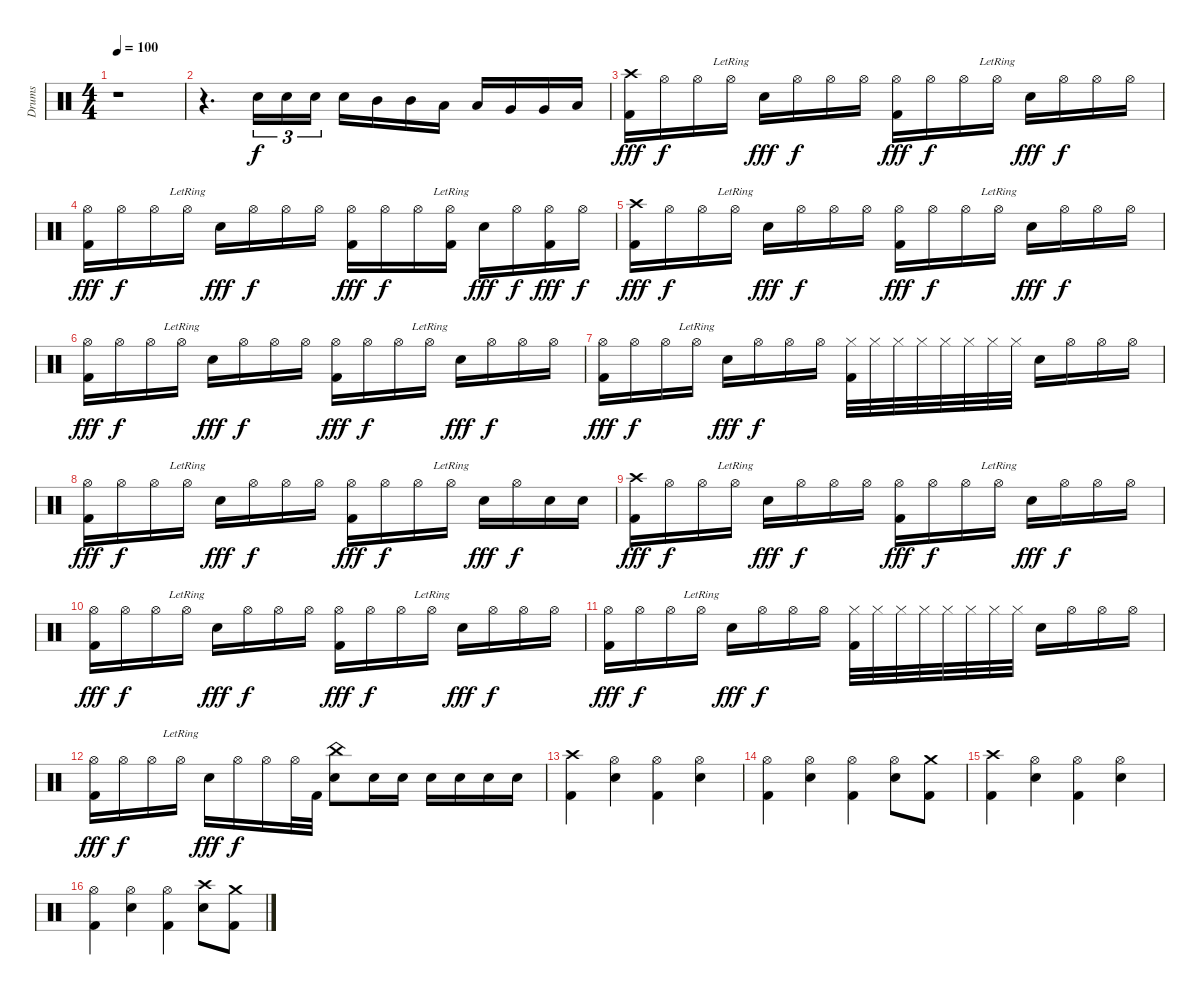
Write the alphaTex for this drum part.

\track ("Drums" "Drums") {instrument percussion}
\staff {score}
\articulation defaults
\ts (4 4)
\tempo 100
\clef neutral
\ks c
r.1{dy f} |
r.4{d} "Snare (hit) 2".16{tu (3 2)} "Snare (hit) 2".16{tu (3 2)} "Snare (hit) 2".16{tu (3 2)} "Snare (hit) 2".16 "Mid Tom (hit)".16 "Mid Tom (hit)".16 "Low Tom (hit)".16 "Low Tom (hit)".16 "Very Low Tom (hit)".16 "Very Low Tom (hit)".16 "Low Floor Tom (hit)".16 |
("Crash high (hit)" "Kick (hit) 2").16{dy fff} "Hi-Hat (open)".16{dy f} "Hi-Hat (open)".16 "Hi-Hat (open)"{lr}.16 "Snare (hit) 2".16{dy fff} "Hi-Hat (open)".16{dy f} "Hi-Hat (open)".16 "Hi-Hat (open)".16 ("Hi-Hat (open)" "Kick (hit) 2").16{dy fff} "Hi-Hat (open)".16{dy f} "Hi-Hat (open)".16 "Hi-Hat (open)"{lr}.16 "Snare (hit) 2".16{dy fff} "Hi-Hat (open)".16{dy f} "Hi-Hat (open)".16 "Hi-Hat (open)".16 |
("Hi-Hat (open)" "Kick (hit) 2").16{dy fff} "Hi-Hat (open)".16{dy f} "Hi-Hat (open)".16 "Hi-Hat (open)"{lr}.16 "Snare (hit) 2".16{dy fff} "Hi-Hat (open)".16{dy f} "Hi-Hat (open)".16 "Hi-Hat (open)".16 ("Hi-Hat (open)" "Kick (hit) 2").16{dy fff} "Hi-Hat (open)".16{dy f} "Hi-Hat (open)".16 ("Hi-Hat (open)"{lr} "Kick (hit) 2").16 "Snare (hit) 2".16{dy fff} "Hi-Hat (open)".16{dy f} ("Hi-Hat (open)" "Kick (hit) 2").16{dy fff} "Hi-Hat (open)".16{dy f} |
("Crash high (hit)" "Kick (hit) 2").16{dy fff} "Hi-Hat (open)".16{dy f} "Hi-Hat (open)".16 "Hi-Hat (open)"{lr}.16 "Snare (hit) 2".16{dy fff} "Hi-Hat (open)".16{dy f} "Hi-Hat (open)".16 "Hi-Hat (open)".16 ("Hi-Hat (open)" "Kick (hit) 2").16{dy fff} "Hi-Hat (open)".16{dy f} "Hi-Hat (open)".16 "Hi-Hat (open)"{lr}.16 "Snare (hit) 2".16{dy fff} "Hi-Hat (open)".16{dy f} "Hi-Hat (open)".16 "Hi-Hat (open)".16 |
("Hi-Hat (open)" "Kick (hit) 2").16{dy fff} "Hi-Hat (open)".16{dy f} "Hi-Hat (open)".16 "Hi-Hat (open)"{lr}.16 "Snare (hit) 2".16{dy fff} "Hi-Hat (open)".16{dy f} "Hi-Hat (open)".16 "Hi-Hat (open)".16 ("Hi-Hat (open)" "Kick (hit) 2").16{dy fff} "Hi-Hat (open)".16{dy f} "Hi-Hat (open)".16 "Hi-Hat (open)"{lr}.16 "Snare (hit) 2".16{dy fff} "Hi-Hat (open)".16{dy f} "Hi-Hat (open)".16 "Hi-Hat (open)".16 |
("Hi-Hat (open)" "Kick (hit) 2").16{dy fff} "Hi-Hat (open)".16{dy f} "Hi-Hat (open)".16 "Hi-Hat (open)"{lr}.16 "Snare (hit) 2".16{dy fff} "Hi-Hat (open)".16{dy f} "Hi-Hat (open)".16 "Hi-Hat (open)".16 ("Hi-Hat (closed)" "Kick (hit) 2").32 "Hi-Hat (closed)".32 "Hi-Hat (closed)".32 "Hi-Hat (closed)".32 "Hi-Hat (closed)".32 "Hi-Hat (closed)".32 "Hi-Hat (closed)".32 "Hi-Hat (closed)".32 "Snare (hit) 2".16 "Hi-Hat (open)".16 "Hi-Hat (open)".16 "Hi-Hat (open)".16 |
("Hi-Hat (open)" "Kick (hit) 2").16{dy fff} "Hi-Hat (open)".16{dy f} "Hi-Hat (open)".16 "Hi-Hat (open)"{lr}.16 "Snare (hit) 2".16{dy fff} "Hi-Hat (open)".16{dy f} "Hi-Hat (open)".16 "Hi-Hat (open)".16 ("Hi-Hat (open)" "Kick (hit) 2").16{dy fff} "Hi-Hat (open)".16{dy f} "Hi-Hat (open)".16 "Hi-Hat (open)"{lr}.16 "Snare (hit) 2".16{dy fff} "Hi-Hat (open)".16{dy f} "Snare (hit) 2".16 "Snare (hit) 2".16 |
("Crash high (hit)" "Kick (hit) 2").16{dy fff} "Hi-Hat (open)".16{dy f} "Hi-Hat (open)".16 "Hi-Hat (open)"{lr}.16 "Snare (hit) 2".16{dy fff} "Hi-Hat (open)".16{dy f} "Hi-Hat (open)".16 "Hi-Hat (open)".16 ("Hi-Hat (open)" "Kick (hit) 2").16{dy fff} "Hi-Hat (open)".16{dy f} "Hi-Hat (open)".16 "Hi-Hat (open)"{lr}.16 "Snare (hit) 2".16{dy fff} "Hi-Hat (open)".16{dy f} "Hi-Hat (open)".16 "Hi-Hat (open)".16 |
("Hi-Hat (open)" "Kick (hit) 2").16{dy fff} "Hi-Hat (open)".16{dy f} "Hi-Hat (open)".16 "Hi-Hat (open)"{lr}.16 "Snare (hit) 2".16{dy fff} "Hi-Hat (open)".16{dy f} "Hi-Hat (open)".16 "Hi-Hat (open)".16 ("Hi-Hat (open)" "Kick (hit) 2").16{dy fff} "Hi-Hat (open)".16{dy f} "Hi-Hat (open)".16 "Hi-Hat (open)"{lr}.16 "Snare (hit) 2".16{dy fff} "Hi-Hat (open)".16{dy f} "Hi-Hat (open)".16 "Hi-Hat (open)".16 |
("Hi-Hat (open)" "Kick (hit) 2").16{dy fff} "Hi-Hat (open)".16{dy f} "Hi-Hat (open)".16 "Hi-Hat (open)"{lr}.16 "Snare (hit) 2".16{dy fff} "Hi-Hat (open)".16{dy f} "Hi-Hat (open)".16 "Hi-Hat (open)".16 ("Hi-Hat (closed)" "Kick (hit) 2").32 "Hi-Hat (closed)".32 "Hi-Hat (closed)".32 "Hi-Hat (closed)".32 "Hi-Hat (closed)".32 "Hi-Hat (closed)".32 "Hi-Hat (closed)".32 "Hi-Hat (closed)".32 "Snare (hit) 2".16 "Hi-Hat (open)".16 "Hi-Hat (open)".16 "Hi-Hat (open)".16 |
("Hi-Hat (open)" "Kick (hit) 2").16{dy fff} "Hi-Hat (open)".16{dy f} "Hi-Hat (open)".16 "Hi-Hat (open)"{lr}.16 "Snare (hit) 2".16{dy fff} "Hi-Hat (open)".16{dy f} "Hi-Hat (open)".16 "Hi-Hat (open)".32 "Kick (hit) 2".32 ("China (hit)" "Snare (hit) 2").8 "Snare (hit) 2".16 "Snare (hit) 2".16 "Snare (hit) 2".16 "Snare (hit) 2".16 "Snare (hit) 2".16 "Snare (hit) 2".16 |
("Crash high (hit)" "Kick (hit) 2").4 ("Hi-Hat (open)" "Snare (hit) 2").4 ("Hi-Hat (open)" "Kick (hit) 2").4 ("Hi-Hat (open)" "Snare (hit) 2").4 |
("Hi-Hat (open)" "Kick (hit) 2").4 ("Hi-Hat (open)" "Snare (hit) 2").4 ("Hi-Hat (open)" "Kick (hit) 2").4 ("Hi-Hat (open)" "Snare (hit) 2").8 ("Crash medium (hit)" "Kick (hit) 2").8 |
("Crash high (hit)" "Kick (hit) 2").4 ("Hi-Hat (open)" "Snare (hit) 2").4 ("Hi-Hat (open)" "Kick (hit) 2").4 ("Hi-Hat (open)" "Snare (hit) 2").4 |
("Hi-Hat (open)" "Kick (hit) 2").4 ("Hi-Hat (open)" "Snare (hit) 2").4 ("Hi-Hat (open)" "Kick (hit) 2").4 ("Crash high (hit)" "Snare (hit) 2").8 ("Crash medium (hit)" "Kick (hit) 2").8
